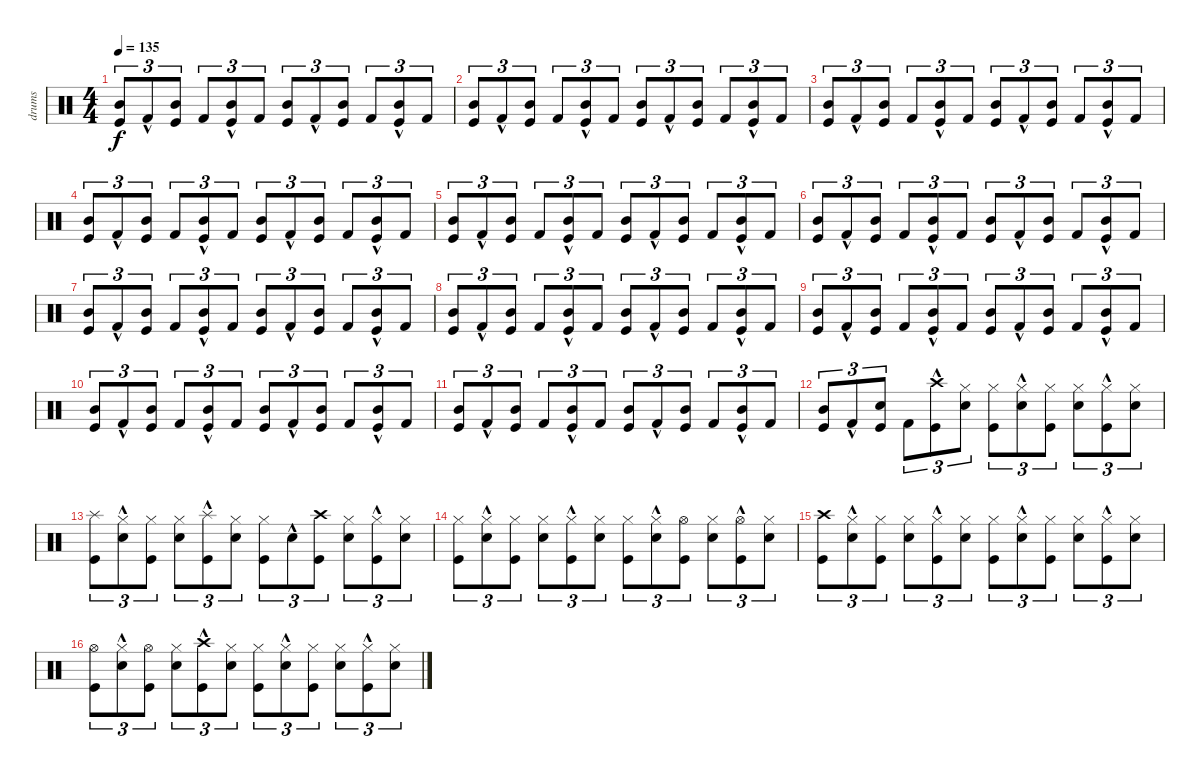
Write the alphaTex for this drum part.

\track ("drums" "drums") {instrument percussion}
\staff {score}
\articulation defaults
\ts (4 4)
\tempo 135
\clef neutral
\ks c
("Kick (hit)" "Mid Tom (hit)").8{tu (3 2) dy f} "Kick (hit) 2"{hac}.8{tu (3 2)} ("Mid Tom (hit)" "Kick (hit)").8{tu (3 2)} "Kick (hit) 2".8{tu (3 2)} ("Mid Tom (hit)"{hac} "Kick (hit)"{hac}).8{tu (3 2)} "Kick (hit) 2".8{tu (3 2)} ("Mid Tom (hit)" "Kick (hit)").8{tu (3 2)} "Kick (hit) 2"{hac}.8{tu (3 2)} ("Kick (hit)" "Mid Tom (hit)").8{tu (3 2)} "Kick (hit) 2".8{tu (3 2)} ("Mid Tom (hit)"{hac} "Kick (hit)"{hac}).8{tu (3 2)} "Kick (hit) 2".8{tu (3 2)} |
("Kick (hit)" "Mid Tom (hit)").8{tu (3 2)} "Kick (hit) 2"{hac}.8{tu (3 2)} ("Kick (hit)" "Mid Tom (hit)").8{tu (3 2)} "Kick (hit) 2".8{tu (3 2)} ("Kick (hit)"{hac} "Mid Tom (hit)"{hac}).8{tu (3 2)} "Kick (hit) 2".8{tu (3 2)} ("Kick (hit)" "Mid Tom (hit)").8{tu (3 2)} "Kick (hit) 2"{hac}.8{tu (3 2)} ("Kick (hit)" "Mid Tom (hit)").8{tu (3 2)} "Kick (hit) 2".8{tu (3 2)} ("Mid Tom (hit)"{hac} "Kick (hit)"{hac}).8{tu (3 2)} "Kick (hit) 2".8{tu (3 2)} |
("Mid Tom (hit)" "Kick (hit)").8{tu (3 2)} "Kick (hit) 2"{hac}.8{tu (3 2)} ("Mid Tom (hit)" "Kick (hit)").8{tu (3 2)} "Kick (hit) 2".8{tu (3 2)} ("Mid Tom (hit)"{hac} "Kick (hit)"{hac}).8{tu (3 2)} "Kick (hit) 2".8{tu (3 2)} ("Kick (hit)" "Mid Tom (hit)").8{tu (3 2)} "Kick (hit) 2"{hac}.8{tu (3 2)} ("Kick (hit)" "Mid Tom (hit)").8{tu (3 2)} "Kick (hit) 2".8{tu (3 2)} ("Kick (hit)"{hac} "Mid Tom (hit)"{hac}).8{tu (3 2)} "Kick (hit) 2".8{tu (3 2)} |
("Mid Tom (hit)" "Kick (hit)").8{tu (3 2)} "Kick (hit) 2"{hac}.8{tu (3 2)} ("Mid Tom (hit)" "Kick (hit)").8{tu (3 2)} "Kick (hit) 2".8{tu (3 2)} ("Mid Tom (hit)"{hac} "Kick (hit)"{hac}).8{tu (3 2)} "Kick (hit) 2".8{tu (3 2)} ("Kick (hit)" "Mid Tom (hit)").8{tu (3 2)} "Kick (hit) 2"{hac}.8{tu (3 2)} ("Mid Tom (hit)" "Kick (hit)").8{tu (3 2)} "Kick (hit) 2".8{tu (3 2)} ("Kick (hit)"{hac} "Mid Tom (hit)"{hac}).8{tu (3 2)} "Kick (hit) 2".8{tu (3 2)} |
("Kick (hit)" "Mid Tom (hit)").8{tu (3 2)} "Kick (hit) 2"{hac}.8{tu (3 2)} ("Kick (hit)" "Mid Tom (hit)").8{tu (3 2)} "Kick (hit) 2".8{tu (3 2)} ("Kick (hit)"{hac} "Mid Tom (hit)"{hac}).8{tu (3 2)} "Kick (hit) 2".8{tu (3 2)} ("Kick (hit)" "Mid Tom (hit)").8{tu (3 2)} "Kick (hit) 2"{hac}.8{tu (3 2)} ("Mid Tom (hit)" "Kick (hit)").8{tu (3 2)} "Kick (hit) 2".8{tu (3 2)} ("Mid Tom (hit)"{hac} "Kick (hit)"{hac}).8{tu (3 2)} "Kick (hit) 2".8{tu (3 2)} |
("Mid Tom (hit)" "Kick (hit)").8{tu (3 2)} "Kick (hit) 2"{hac}.8{tu (3 2)} ("Mid Tom (hit)" "Kick (hit)").8{tu (3 2)} "Kick (hit) 2".8{tu (3 2)} ("Kick (hit)"{hac} "Mid Tom (hit)"{hac}).8{tu (3 2)} "Kick (hit) 2".8{tu (3 2)} ("Kick (hit)" "Mid Tom (hit)").8{tu (3 2)} "Kick (hit) 2"{hac}.8{tu (3 2)} ("Kick (hit)" "Mid Tom (hit)").8{tu (3 2)} "Kick (hit) 2".8{tu (3 2)} ("Mid Tom (hit)"{hac} "Kick (hit)"{hac}).8{tu (3 2)} "Kick (hit) 2".8{tu (3 2)} |
("Mid Tom (hit)" "Kick (hit)").8{tu (3 2)} "Kick (hit) 2"{hac}.8{tu (3 2)} ("Mid Tom (hit)" "Kick (hit)").8{tu (3 2)} "Kick (hit) 2".8{tu (3 2)} ("Kick (hit)"{hac} "Mid Tom (hit)"{hac}).8{tu (3 2)} "Kick (hit) 2".8{tu (3 2)} ("Mid Tom (hit)" "Kick (hit)").8{tu (3 2)} "Kick (hit) 2"{hac}.8{tu (3 2)} ("Kick (hit)" "Mid Tom (hit)").8{tu (3 2)} "Kick (hit) 2".8{tu (3 2)} ("Kick (hit)"{hac} "Mid Tom (hit)"{hac}).8{tu (3 2)} "Kick (hit) 2".8{tu (3 2)} |
("Kick (hit)" "Mid Tom (hit)").8{tu (3 2)} "Kick (hit) 2"{hac}.8{tu (3 2)} ("Kick (hit)" "Mid Tom (hit)").8{tu (3 2)} "Kick (hit) 2".8{tu (3 2)} ("Kick (hit)"{hac} "Mid Tom (hit)"{hac}).8{tu (3 2)} "Kick (hit) 2".8{tu (3 2)} ("Mid Tom (hit)" "Kick (hit)").8{tu (3 2)} "Kick (hit) 2"{hac}.8{tu (3 2)} ("Mid Tom (hit)" "Kick (hit)").8{tu (3 2)} "Kick (hit) 2".8{tu (3 2)} ("Mid Tom (hit)"{hac} "Kick (hit)"{hac}).8{tu (3 2)} "Kick (hit) 2".8{tu (3 2)} |
("Mid Tom (hit)" "Kick (hit)").8{tu (3 2)} "Kick (hit) 2"{hac}.8{tu (3 2)} ("Kick (hit)" "Mid Tom (hit)").8{tu (3 2)} "Kick (hit) 2".8{tu (3 2)} ("Kick (hit)"{hac} "Mid Tom (hit)"{hac}).8{tu (3 2)} "Kick (hit) 2".8{tu (3 2)} ("Kick (hit)" "Mid Tom (hit)").8{tu (3 2)} "Kick (hit) 2"{hac}.8{tu (3 2)} ("Mid Tom (hit)" "Kick (hit)").8{tu (3 2)} "Kick (hit) 2".8{tu (3 2)} ("Mid Tom (hit)"{hac} "Kick (hit)"{hac}).8{tu (3 2)} "Kick (hit) 2".8{tu (3 2)} |
("Mid Tom (hit)" "Kick (hit)").8{tu (3 2)} "Kick (hit) 2"{hac}.8{tu (3 2)} ("Kick (hit)" "Mid Tom (hit)").8{tu (3 2)} "Kick (hit) 2".8{tu (3 2)} ("Mid Tom (hit)"{hac} "Kick (hit)"{hac}).8{tu (3 2)} "Kick (hit) 2".8{tu (3 2)} ("Kick (hit)" "Mid Tom (hit)").8{tu (3 2)} "Kick (hit) 2"{hac}.8{tu (3 2)} ("Kick (hit)" "Mid Tom (hit)").8{tu (3 2)} "Kick (hit) 2".8{tu (3 2)} ("Kick (hit)"{hac} "Mid Tom (hit)"{hac}).8{tu (3 2)} "Kick (hit) 2".8{tu (3 2)} |
("Kick (hit)" "Mid Tom (hit)").8{tu (3 2)} "Kick (hit) 2"{hac}.8{tu (3 2)} ("Kick (hit)" "Mid Tom (hit)").8{tu (3 2)} "Kick (hit) 2".8{tu (3 2)} ("Mid Tom (hit)"{hac} "Kick (hit)"{hac}).8{tu (3 2)} "Kick (hit) 2".8{tu (3 2)} ("Mid Tom (hit)" "Kick (hit)").8{tu (3 2)} "Kick (hit) 2"{hac}.8{tu (3 2)} ("Mid Tom (hit)" "Kick (hit)").8{tu (3 2)} "Kick (hit) 2".8{tu (3 2)} ("Mid Tom (hit)"{hac} "Kick (hit)"{hac}).8{tu (3 2)} "Kick (hit) 2".8{tu (3 2)} |
("Kick (hit)" "Mid Tom (hit)").8{tu (3 2)} "Kick (hit) 2"{hac}.8{tu (3 2)} ("Kick (hit)" "Snare (hit) 2").8{tu (3 2)} "Kick (hit) 2".8{tu (3 2)} ("Kick (hit)"{hac} "Crash high (hit)").8{tu (3 2)} ("Snare (hit) 2" "Hi-Hat (closed)").8{tu (3 2)} ("Hi-Hat (closed)" "Kick (hit)").8{tu (3 2)} ("Hi-Hat (closed)" "Snare (hit) 2"{hac}).8{tu (3 2)} ("Kick (hit)" "Hi-Hat (closed)").8{tu (3 2)} ("Hi-Hat (closed)" "Snare (hit) 2").8{tu (3 2)} ("Hi-Hat (closed)" "Kick (hit)"{hac}).8{tu (3 2)} ("Hi-Hat (closed)" "Snare (hit) 2").8{tu (3 2)} |
("Kick (hit)" "Splash (hit)").8{tu (3 2)} ("Snare (hit) 2"{hac} "Hi-Hat (closed)").8{tu (3 2)} ("Hi-Hat (closed)" "Kick (hit)").8{tu (3 2)} ("Hi-Hat (closed)" "Snare (hit) 2").8{tu (3 2)} ("Kick (hit)"{hac} "Splash (hit)").8{tu (3 2)} ("Hi-Hat (closed)" "Snare (hit) 2").8{tu (3 2)} ("Kick (hit)" "Hi-Hat (closed)").8{tu (3 2)} "Snare (hit) 2"{hac}.8{tu (3 2)} ("Kick (hit)" "Crash high (hit)").8{tu (3 2)} ("Hi-Hat (closed)" "Snare (hit) 2").8{tu (3 2)} ("Hi-Hat (closed)" "Kick (hit)"{hac}).8{tu (3 2)} ("Snare (hit) 2" "Hi-Hat (closed)").8{tu (3 2)} |
("Hi-Hat (closed)" "Kick (hit)").8{tu (3 2)} ("Hi-Hat (closed)" "Snare (hit) 2"{hac}).8{tu (3 2)} ("Kick (hit)" "Hi-Hat (closed)").8{tu (3 2)} ("Hi-Hat (closed)" "Snare (hit) 2").8{tu (3 2)} ("Hi-Hat (closed)" "Kick (hit)"{hac}).8{tu (3 2)} ("Snare (hit) 2" "Hi-Hat (closed)").8{tu (3 2)} ("Hi-Hat (closed)" "Kick (hit)").8{tu (3 2)} ("Hi-Hat (closed)" "Snare (hit) 2"{hac}).8{tu (3 2)} ("Hi-Hat (open)" "Kick (hit)").8{tu (3 2)} ("Hi-Hat (closed)" "Snare (hit) 2").8{tu (3 2)} ("Hi-Hat (open)" "Kick (hit)"{hac}).8{tu (3 2)} ("Hi-Hat (closed)" "Snare (hit) 2").8{tu (3 2)} |
("Kick (hit)" "Crash high (hit)").8{tu (3 2)} ("Hi-Hat (closed)" "Snare (hit) 2"{hac}).8{tu (3 2)} ("Hi-Hat (closed)" "Kick (hit)").8{tu (3 2)} ("Snare (hit) 2" "Hi-Hat (closed)").8{tu (3 2)} ("Hi-Hat (closed)" "Kick (hit)"{hac}).8{tu (3 2)} ("Hi-Hat (closed)" "Snare (hit) 2").8{tu (3 2)} ("Kick (hit)" "Hi-Hat (closed)").8{tu (3 2)} ("Hi-Hat (closed)" "Snare (hit) 2"{hac}).8{tu (3 2)} ("Hi-Hat (closed)" "Kick (hit)").8{tu (3 2)} ("Snare (hit) 2" "Hi-Hat (closed)").8{tu (3 2)} ("Hi-Hat (closed)" "Kick (hit)"{hac}).8{tu (3 2)} ("Hi-Hat (closed)" "Snare (hit) 2").8{tu (3 2)} |
("Hi-Hat (open)" "Kick (hit)").8{tu (3 2)} ("Hi-Hat (closed)" "Snare (hit) 2"{hac}).8{tu (3 2)} ("Hi-Hat (open)" "Kick (hit)").8{tu (3 2)} ("Hi-Hat (closed)" "Snare (hit) 2").8{tu (3 2)} ("Kick (hit)"{hac} "Crash high (hit)"{hac}).8{tu (3 2)} ("Hi-Hat (closed)" "Snare (hit) 2").8{tu (3 2)} ("Hi-Hat (closed)" "Kick (hit)").8{tu (3 2)} ("Snare (hit) 2"{hac} "Hi-Hat (closed)").8{tu (3 2)} ("Hi-Hat (closed)" "Kick (hit)").8{tu (3 2)} ("Hi-Hat (closed)" "Snare (hit) 2").8{tu (3 2)} ("Kick (hit)"{hac} "Hi-Hat (closed)").8{tu (3 2)} ("Hi-Hat (closed)" "Snare (hit) 2").8{tu (3 2)}
